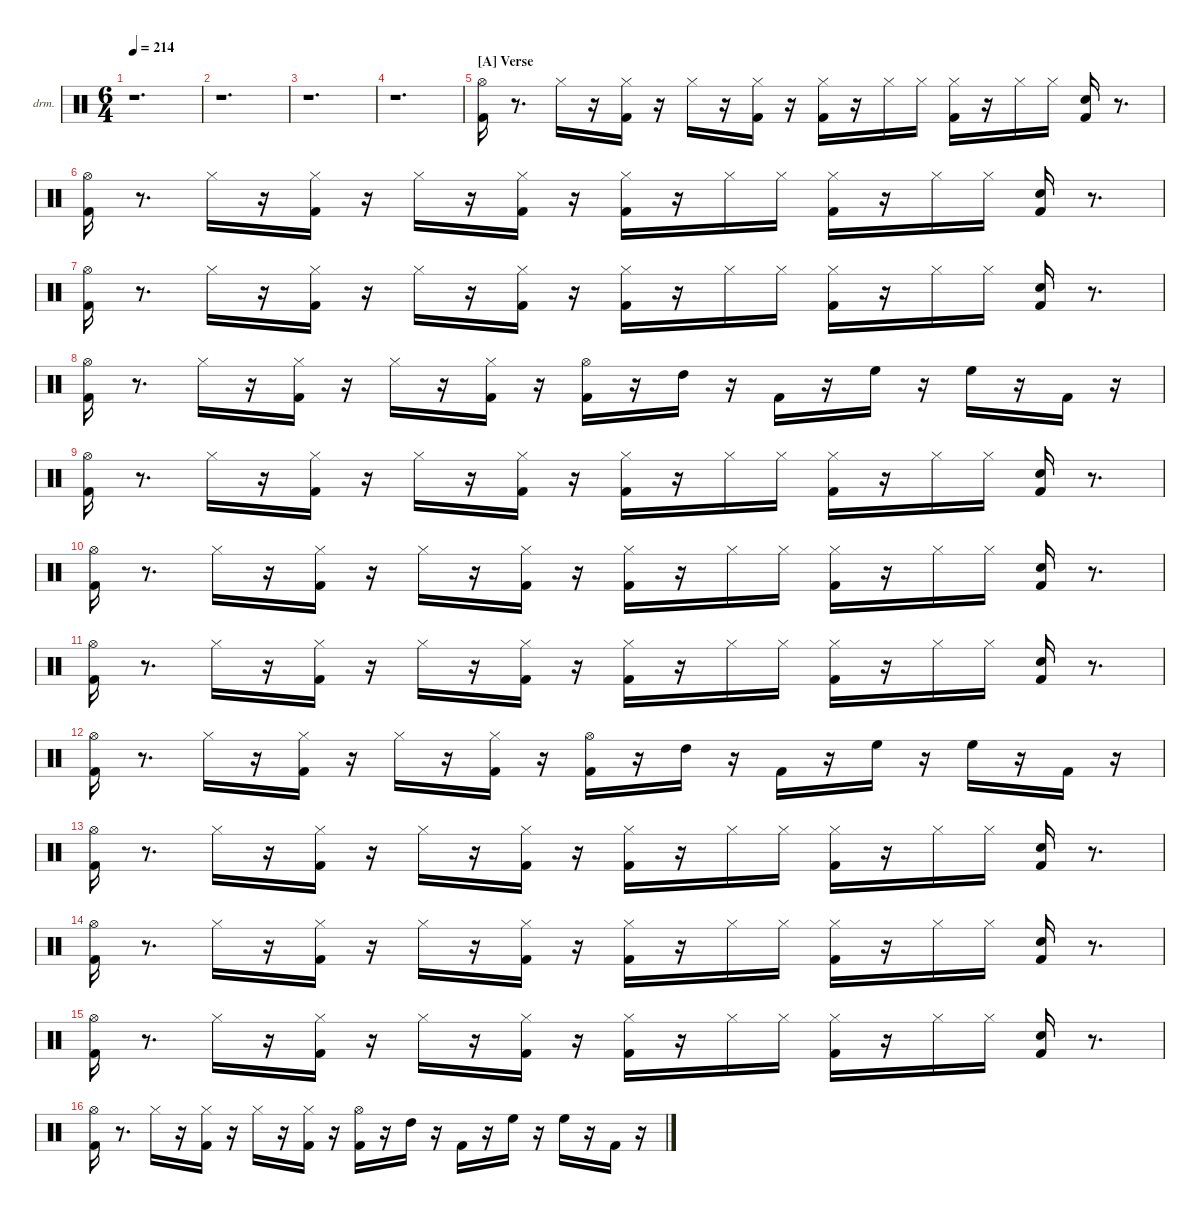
\hideDynamics
\bracketExtendMode nobrackets
\firstSystemTrackNameOrientation horizontal
\track ("EZdrummer 3" "drm.") {instrument percussion}
\staff {score}
\articulation defaults
\ts (6 4)
\tempo 214
\clef neutral
\ks aminor
r.1{d dy fff} |
r.1{d} |
r.1{d} |
r.1{d} |
\section ("A" "Verse")
("Kick (hit) 2" "Hi-Hat (open)"{acc #}).16 r.8{d} "Hi-Hat (closed)"{acc #}.16{dy f} r.16 ("Kick (hit) 2" "Hi-Hat (closed)"{acc #}).16{dy ff} r.16 "Hi-Hat (closed)"{acc #}.16 r.16 ("Kick (hit) 2" "Hi-Hat (closed)"{acc #}).16 r.16 ("Kick (hit) 2" "Hi-Hat (closed)"{acc #}).16 r.16 "Hi-Hat (closed)"{acc #}.16{dy f} "Hi-Hat (closed)"{acc #}.16{dy mp} ("Kick (hit) 2" "Hi-Hat (closed)"{acc #}).16{dy ff} r.16 "Hi-Hat (closed)"{acc #}.16{dy f} "Hi-Hat (closed)"{acc #}.16{dy mf} ("Kick (hit) 2" "Snare (hit) 2").16{dy ff} r.8{d} |
("Kick (hit) 2" "Hi-Hat (open)"{acc #}).16 r.8{d} "Hi-Hat (closed)"{acc #}.16{dy f} r.16 ("Kick (hit) 2" "Hi-Hat (closed)"{acc #}).16{dy ff} r.16 "Hi-Hat (closed)"{acc #}.16 r.16 ("Kick (hit) 2" "Hi-Hat (closed)"{acc #}).16 r.16 ("Kick (hit) 2" "Hi-Hat (closed)"{acc #}).16 r.16 "Hi-Hat (closed)"{acc #}.16{dy f} "Hi-Hat (closed)"{acc #}.16{dy mp} ("Kick (hit) 2" "Hi-Hat (closed)"{acc #}).16{dy ff} r.16 "Hi-Hat (closed)"{acc #}.16{dy f} "Hi-Hat (closed)"{acc #}.16{dy mf} ("Kick (hit) 2" "Snare (hit) 2").16{dy ff} r.8{d} |
("Kick (hit) 2" "Hi-Hat (open)"{acc #}).16 r.8{d} "Hi-Hat (closed)"{acc #}.16{dy f} r.16 ("Kick (hit) 2" "Hi-Hat (closed)"{acc #}).16{dy ff} r.16 "Hi-Hat (closed)"{acc #}.16 r.16 ("Kick (hit) 2" "Hi-Hat (closed)"{acc #}).16 r.16 ("Kick (hit) 2" "Hi-Hat (closed)"{acc #}).16 r.16 "Hi-Hat (closed)"{acc #}.16{dy f} "Hi-Hat (closed)"{acc #}.16{dy mp} ("Kick (hit) 2" "Hi-Hat (closed)"{acc #}).16{dy ff} r.16 "Hi-Hat (closed)"{acc #}.16{dy f} "Hi-Hat (closed)"{acc #}.16{dy mf} ("Kick (hit) 2" "Snare (hit) 2").16{dy ff} r.8{d} |
("Kick (hit) 2" "Hi-Hat (open)"{acc #}).16 r.8{d} "Hi-Hat (closed)"{acc #}.16{dy f} r.16 ("Kick (hit) 2" "Hi-Hat (closed)"{acc #}).16{dy ff} r.16 "Hi-Hat (closed)"{acc #}.16 r.16 ("Kick (hit) 2" "Hi-Hat (closed)"{acc #}).16 r.16 ("Kick (hit) 2" "Hi-Hat (open)"{acc #}).16 r.16 "High Tom (hit)".16 r.16 "Kick (hit) 2".16 r.16 "High Floor Tom (hit)".16{dy mf} r.16 "High Floor Tom (hit)".16{dy fff} r.16 "Kick (hit) 2".16{dy mf} r.16 |
("Kick (hit) 2" "Hi-Hat (open)"{acc #}).16{dy ff} r.8{d} "Hi-Hat (closed)"{acc #}.16{dy f} r.16 ("Kick (hit) 2" "Hi-Hat (closed)"{acc #}).16{dy ff} r.16 "Hi-Hat (closed)"{acc #}.16 r.16 ("Kick (hit) 2" "Hi-Hat (closed)"{acc #}).16 r.16 ("Kick (hit) 2" "Hi-Hat (closed)"{acc #}).16 r.16 "Hi-Hat (closed)"{acc #}.16{dy f} "Hi-Hat (closed)"{acc #}.16{dy mp} ("Kick (hit) 2" "Hi-Hat (closed)"{acc #}).16{dy ff} r.16 "Hi-Hat (closed)"{acc #}.16{dy f} "Hi-Hat (closed)"{acc #}.16{dy mf} ("Kick (hit) 2" "Snare (hit) 2").16{dy ff} r.8{d} |
("Kick (hit) 2" "Hi-Hat (open)"{acc #}).16 r.8{d} "Hi-Hat (closed)"{acc #}.16{dy f} r.16 ("Kick (hit) 2" "Hi-Hat (closed)"{acc #}).16{dy ff} r.16 "Hi-Hat (closed)"{acc #}.16 r.16 ("Kick (hit) 2" "Hi-Hat (closed)"{acc #}).16 r.16 ("Kick (hit) 2" "Hi-Hat (closed)"{acc #}).16 r.16 "Hi-Hat (closed)"{acc #}.16{dy f} "Hi-Hat (closed)"{acc #}.16{dy mp} ("Kick (hit) 2" "Hi-Hat (closed)"{acc #}).16{dy ff} r.16 "Hi-Hat (closed)"{acc #}.16{dy f} "Hi-Hat (closed)"{acc #}.16{dy mf} ("Kick (hit) 2" "Snare (hit) 2").16{dy ff} r.8{d} |
("Kick (hit) 2" "Hi-Hat (open)"{acc #}).16 r.8{d} "Hi-Hat (closed)"{acc #}.16{dy f} r.16 ("Kick (hit) 2" "Hi-Hat (closed)"{acc #}).16{dy ff} r.16 "Hi-Hat (closed)"{acc #}.16 r.16 ("Kick (hit) 2" "Hi-Hat (closed)"{acc #}).16 r.16 ("Kick (hit) 2" "Hi-Hat (closed)"{acc #}).16 r.16 "Hi-Hat (closed)"{acc #}.16{dy f} "Hi-Hat (closed)"{acc #}.16{dy mp} ("Kick (hit) 2" "Hi-Hat (closed)"{acc #}).16{dy ff} r.16 "Hi-Hat (closed)"{acc #}.16{dy f} "Hi-Hat (closed)"{acc #}.16{dy mf} ("Kick (hit) 2" "Snare (hit) 2").16{dy ff} r.8{d} |
("Kick (hit) 2" "Hi-Hat (open)"{acc #}).16 r.8{d} "Hi-Hat (closed)"{acc #}.16{dy f} r.16 ("Kick (hit) 2" "Hi-Hat (closed)"{acc #}).16{dy ff} r.16 "Hi-Hat (closed)"{acc #}.16 r.16 ("Kick (hit) 2" "Hi-Hat (closed)"{acc #}).16 r.16 ("Kick (hit) 2" "Hi-Hat (open)"{acc #}).16 r.16 "High Tom (hit)".16 r.16 "Kick (hit) 2".16 r.16 "High Floor Tom (hit)".16{dy mf} r.16 "High Floor Tom (hit)".16{dy fff} r.16 "Kick (hit) 2".16{dy mf} r.16 |
("Kick (hit) 2" "Hi-Hat (open)"{acc #}).16{dy ff} r.8{d} "Hi-Hat (closed)"{acc #}.16{dy f} r.16 ("Kick (hit) 2" "Hi-Hat (closed)"{acc #}).16{dy ff} r.16 "Hi-Hat (closed)"{acc #}.16 r.16 ("Kick (hit) 2" "Hi-Hat (closed)"{acc #}).16 r.16 ("Kick (hit) 2" "Hi-Hat (closed)"{acc #}).16 r.16 "Hi-Hat (closed)"{acc #}.16{dy f} "Hi-Hat (closed)"{acc #}.16{dy mp} ("Kick (hit) 2" "Hi-Hat (closed)"{acc #}).16{dy ff} r.16 "Hi-Hat (closed)"{acc #}.16{dy f} "Hi-Hat (closed)"{acc #}.16{dy mf} ("Kick (hit) 2" "Snare (hit) 2").16{dy ff} r.8{d} |
("Kick (hit) 2" "Hi-Hat (open)"{acc #}).16 r.8{d} "Hi-Hat (closed)"{acc #}.16{dy f} r.16 ("Kick (hit) 2" "Hi-Hat (closed)"{acc #}).16{dy ff} r.16 "Hi-Hat (closed)"{acc #}.16 r.16 ("Kick (hit) 2" "Hi-Hat (closed)"{acc #}).16 r.16 ("Kick (hit) 2" "Hi-Hat (closed)"{acc #}).16 r.16 "Hi-Hat (closed)"{acc #}.16{dy f} "Hi-Hat (closed)"{acc #}.16{dy mp} ("Kick (hit) 2" "Hi-Hat (closed)"{acc #}).16{dy ff} r.16 "Hi-Hat (closed)"{acc #}.16{dy f} "Hi-Hat (closed)"{acc #}.16{dy mf} ("Kick (hit) 2" "Snare (hit) 2").16{dy ff} r.8{d} |
("Kick (hit) 2" "Hi-Hat (open)"{acc #}).16 r.8{d} "Hi-Hat (closed)"{acc #}.16{dy f} r.16 ("Kick (hit) 2" "Hi-Hat (closed)"{acc #}).16{dy ff} r.16 "Hi-Hat (closed)"{acc #}.16 r.16 ("Kick (hit) 2" "Hi-Hat (closed)"{acc #}).16 r.16 ("Kick (hit) 2" "Hi-Hat (closed)"{acc #}).16 r.16 "Hi-Hat (closed)"{acc #}.16{dy f} "Hi-Hat (closed)"{acc #}.16{dy mp} ("Kick (hit) 2" "Hi-Hat (closed)"{acc #}).16{dy ff} r.16 "Hi-Hat (closed)"{acc #}.16{dy f} "Hi-Hat (closed)"{acc #}.16{dy mf} ("Kick (hit) 2" "Snare (hit) 2").16{dy ff} r.8{d} |
("Kick (hit) 2" "Hi-Hat (open)"{acc #}).16 r.8{d} "Hi-Hat (closed)"{acc #}.16{dy f} r.16 ("Kick (hit) 2" "Hi-Hat (closed)"{acc #}).16{dy ff} r.16 "Hi-Hat (closed)"{acc #}.16 r.16 ("Kick (hit) 2" "Hi-Hat (closed)"{acc #}).16 r.16 ("Kick (hit) 2" "Hi-Hat (open)"{acc #}).16 r.16 "High Tom (hit)".16 r.16 "Kick (hit) 2".16 r.16 "High Floor Tom (hit)".16{dy mf} r.16 "High Floor Tom (hit)".16{dy fff} r.16 "Kick (hit) 2".16{dy mf} r.16
